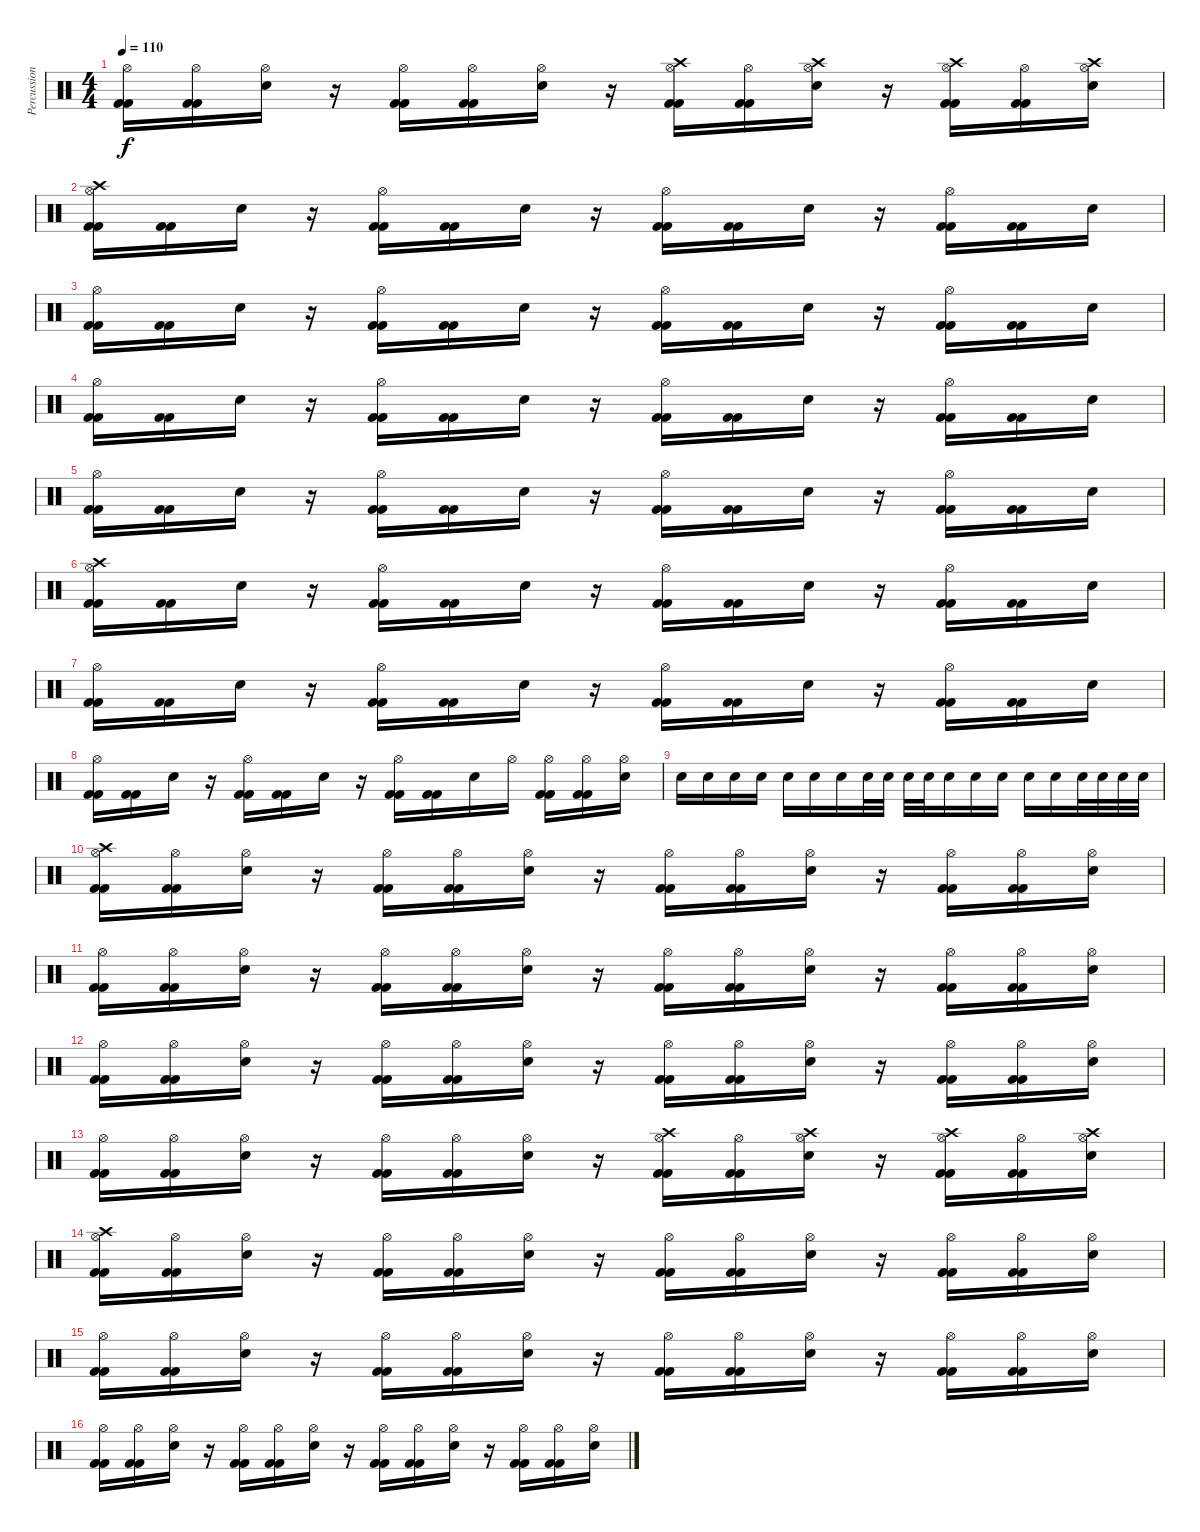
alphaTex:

\track ("Percussions" "Percussion") {instrument percussion}
\staff {score}
\articulation defaults
\ts (4 4)
\tempo 110
\clef neutral
\ks c
("Hi-Hat (open)" "Kick (hit) 2" "Kick (hit) 2").16{dy f} ("Hi-Hat (open)" "Kick (hit) 2" "Kick (hit) 2").16 ("Hi-Hat (open)" "Snare (hit) 2").16 r.16 ("Hi-Hat (open)" "Kick (hit) 2" "Kick (hit) 2").16 ("Hi-Hat (open)" "Kick (hit) 2" "Kick (hit) 2").16 ("Hi-Hat (open)" "Snare (hit) 2").16 r.16 ("Crash high (hit)" "Hi-Hat (open)" "Kick (hit) 2" "Kick (hit) 2").16 ("Hi-Hat (open)" "Kick (hit) 2" "Kick (hit) 2").16 ("Crash high (hit)" "Hi-Hat (open)" "Snare (hit) 2").16 r.16 ("Crash high (hit)" "Hi-Hat (open)" "Kick (hit) 2" "Kick (hit) 2").16 ("Hi-Hat (open)" "Kick (hit) 2" "Kick (hit) 2").16 ("Crash high (hit)" "Hi-Hat (open)" "Snare (hit) 2").16 |
("Crash high (hit)" "Hi-Hat (open)" "Kick (hit) 2" "Kick (hit) 2").16 ("Kick (hit) 2" "Kick (hit) 2").16 "Snare (hit) 2".16 r.16 ("Hi-Hat (open)" "Kick (hit) 2" "Kick (hit) 2").16 ("Kick (hit) 2" "Kick (hit) 2").16 "Snare (hit) 2".16 r.16 ("Hi-Hat (open)" "Kick (hit) 2" "Kick (hit) 2").16 ("Kick (hit) 2" "Kick (hit) 2").16 "Snare (hit) 2".16 r.16 ("Hi-Hat (open)" "Kick (hit) 2" "Kick (hit) 2").16 ("Kick (hit) 2" "Kick (hit) 2").16 "Snare (hit) 2".16 |
("Hi-Hat (open)" "Kick (hit) 2" "Kick (hit) 2").16 ("Kick (hit) 2" "Kick (hit) 2").16 "Snare (hit) 2".16 r.16 ("Hi-Hat (open)" "Kick (hit) 2" "Kick (hit) 2").16 ("Kick (hit) 2" "Kick (hit) 2").16 "Snare (hit) 2".16 r.16 ("Hi-Hat (open)" "Kick (hit) 2" "Kick (hit) 2").16 ("Kick (hit) 2" "Kick (hit) 2").16 "Snare (hit) 2".16 r.16 ("Hi-Hat (open)" "Kick (hit) 2" "Kick (hit) 2").16 ("Kick (hit) 2" "Kick (hit) 2").16 "Snare (hit) 2".16 |
("Hi-Hat (open)" "Kick (hit) 2" "Kick (hit) 2").16 ("Kick (hit) 2" "Kick (hit) 2").16 "Snare (hit) 2".16 r.16 ("Hi-Hat (open)" "Kick (hit) 2" "Kick (hit) 2").16 ("Kick (hit) 2" "Kick (hit) 2").16 "Snare (hit) 2".16 r.16 ("Hi-Hat (open)" "Kick (hit) 2" "Kick (hit) 2").16 ("Kick (hit) 2" "Kick (hit) 2").16 "Snare (hit) 2".16 r.16 ("Hi-Hat (open)" "Kick (hit) 2" "Kick (hit) 2").16 ("Kick (hit) 2" "Kick (hit) 2").16 "Snare (hit) 2".16 |
("Hi-Hat (open)" "Kick (hit) 2" "Kick (hit) 2").16 ("Kick (hit) 2" "Kick (hit) 2").16 "Snare (hit) 2".16 r.16 ("Hi-Hat (open)" "Kick (hit) 2" "Kick (hit) 2").16 ("Kick (hit) 2" "Kick (hit) 2").16 "Snare (hit) 2".16 r.16 ("Hi-Hat (open)" "Kick (hit) 2" "Kick (hit) 2").16 ("Kick (hit) 2" "Kick (hit) 2").16 "Snare (hit) 2".16 r.16 ("Hi-Hat (open)" "Kick (hit) 2" "Kick (hit) 2").16 ("Kick (hit) 2" "Kick (hit) 2").16 "Snare (hit) 2".16 |
("Crash high (hit)" "Hi-Hat (open)" "Kick (hit) 2" "Kick (hit) 2").16 ("Kick (hit) 2" "Kick (hit) 2").16 "Snare (hit) 2".16 r.16 ("Hi-Hat (open)" "Kick (hit) 2" "Kick (hit) 2").16 ("Kick (hit) 2" "Kick (hit) 2").16 "Snare (hit) 2".16 r.16 ("Hi-Hat (open)" "Kick (hit) 2" "Kick (hit) 2").16 ("Kick (hit) 2" "Kick (hit) 2").16 "Snare (hit) 2".16 r.16 ("Hi-Hat (open)" "Kick (hit) 2" "Kick (hit) 2").16 ("Kick (hit) 2" "Kick (hit) 2").16 "Snare (hit) 2".16 |
("Hi-Hat (open)" "Kick (hit) 2" "Kick (hit) 2").16 ("Kick (hit) 2" "Kick (hit) 2").16 "Snare (hit) 2".16 r.16 ("Hi-Hat (open)" "Kick (hit) 2" "Kick (hit) 2").16 ("Kick (hit) 2" "Kick (hit) 2").16 "Snare (hit) 2".16 r.16 ("Hi-Hat (open)" "Kick (hit) 2" "Kick (hit) 2").16 ("Kick (hit) 2" "Kick (hit) 2").16 "Snare (hit) 2".16 r.16 ("Hi-Hat (open)" "Kick (hit) 2" "Kick (hit) 2").16 ("Kick (hit) 2" "Kick (hit) 2").16 "Snare (hit) 2".16 |
("Hi-Hat (open)" "Kick (hit) 2" "Kick (hit) 2").16 ("Kick (hit) 2" "Kick (hit) 2").16 "Snare (hit) 2".16 r.16 ("Hi-Hat (open)" "Kick (hit) 2" "Kick (hit) 2").16 ("Kick (hit) 2" "Kick (hit) 2").16 "Snare (hit) 2".16 r.16 ("Hi-Hat (open)" "Kick (hit) 2" "Kick (hit) 2").16 ("Kick (hit) 2" "Kick (hit) 2").16 "Snare (hit) 2".16 "Hi-Hat (open)".16 ("Hi-Hat (open)" "Kick (hit) 2" "Kick (hit) 2").16 ("Hi-Hat (open)" "Kick (hit) 2" "Kick (hit) 2").16 ("Hi-Hat (open)" "Snare (hit) 2").16 |
"Snare (hit) 2".16{volume 16} "Snare (hit) 2".16 "Snare (hit) 2".16 "Snare (hit) 2".16 "Snare (hit) 2".16 "Snare (hit) 2".16 "Snare (hit) 2".16 "Snare (hit) 2".32 "Snare (hit) 2".32 "Snare (hit) 2".32 "Snare (hit) 2".32 "Snare (hit) 2".16 "Snare (hit) 2".16 "Snare (hit) 2".16 "Snare (hit) 2".16 "Snare (hit) 2".16 "Snare (hit) 2".32 "Snare (hit) 2".32 "Snare (hit) 2".32 "Snare (hit) 2".32 |
("Crash high (hit)" "Hi-Hat (open)" "Kick (hit) 2" "Kick (hit) 2").16 ("Hi-Hat (open)" "Kick (hit) 2" "Kick (hit) 2").16 ("Hi-Hat (open)" "Snare (hit) 2").16 r.16 ("Hi-Hat (open)" "Kick (hit) 2" "Kick (hit) 2").16 ("Hi-Hat (open)" "Kick (hit) 2" "Kick (hit) 2").16 ("Hi-Hat (open)" "Snare (hit) 2").16 r.16 ("Hi-Hat (open)" "Kick (hit) 2" "Kick (hit) 2").16 ("Hi-Hat (open)" "Kick (hit) 2" "Kick (hit) 2").16 ("Hi-Hat (open)" "Snare (hit) 2").16 r.16 ("Hi-Hat (open)" "Kick (hit) 2" "Kick (hit) 2").16 ("Hi-Hat (open)" "Kick (hit) 2" "Kick (hit) 2").16 ("Hi-Hat (open)" "Snare (hit) 2").16 |
("Hi-Hat (open)" "Kick (hit) 2" "Kick (hit) 2").16 ("Hi-Hat (open)" "Kick (hit) 2" "Kick (hit) 2").16 ("Hi-Hat (open)" "Snare (hit) 2").16 r.16 ("Hi-Hat (open)" "Kick (hit) 2" "Kick (hit) 2").16 ("Hi-Hat (open)" "Kick (hit) 2" "Kick (hit) 2").16 ("Hi-Hat (open)" "Snare (hit) 2").16 r.16 ("Hi-Hat (open)" "Kick (hit) 2" "Kick (hit) 2").16 ("Hi-Hat (open)" "Kick (hit) 2" "Kick (hit) 2").16 ("Hi-Hat (open)" "Snare (hit) 2").16 r.16 ("Hi-Hat (open)" "Kick (hit) 2" "Kick (hit) 2").16 ("Hi-Hat (open)" "Kick (hit) 2" "Kick (hit) 2").16 ("Hi-Hat (open)" "Snare (hit) 2").16 |
("Hi-Hat (open)" "Kick (hit) 2" "Kick (hit) 2").16 ("Hi-Hat (open)" "Kick (hit) 2" "Kick (hit) 2").16 ("Hi-Hat (open)" "Snare (hit) 2").16 r.16 ("Hi-Hat (open)" "Kick (hit) 2" "Kick (hit) 2").16 ("Hi-Hat (open)" "Kick (hit) 2" "Kick (hit) 2").16 ("Hi-Hat (open)" "Snare (hit) 2").16 r.16 ("Hi-Hat (open)" "Kick (hit) 2" "Kick (hit) 2").16 ("Hi-Hat (open)" "Kick (hit) 2" "Kick (hit) 2").16 ("Hi-Hat (open)" "Snare (hit) 2").16 r.16 ("Hi-Hat (open)" "Kick (hit) 2" "Kick (hit) 2").16 ("Hi-Hat (open)" "Kick (hit) 2" "Kick (hit) 2").16 ("Hi-Hat (open)" "Snare (hit) 2").16 |
("Hi-Hat (open)" "Kick (hit) 2" "Kick (hit) 2").16 ("Hi-Hat (open)" "Kick (hit) 2" "Kick (hit) 2").16 ("Hi-Hat (open)" "Snare (hit) 2").16 r.16 ("Hi-Hat (open)" "Kick (hit) 2" "Kick (hit) 2").16 ("Hi-Hat (open)" "Kick (hit) 2" "Kick (hit) 2").16 ("Hi-Hat (open)" "Snare (hit) 2").16 r.16 ("Crash high (hit)" "Hi-Hat (open)" "Kick (hit) 2" "Kick (hit) 2").16 ("Hi-Hat (open)" "Kick (hit) 2" "Kick (hit) 2").16 ("Crash high (hit)" "Hi-Hat (open)" "Snare (hit) 2").16 r.16 ("Crash high (hit)" "Hi-Hat (open)" "Kick (hit) 2" "Kick (hit) 2").16 ("Hi-Hat (open)" "Kick (hit) 2" "Kick (hit) 2").16 ("Crash high (hit)" "Hi-Hat (open)" "Snare (hit) 2").16 |
("Crash high (hit)" "Hi-Hat (open)" "Kick (hit) 2" "Kick (hit) 2").16 ("Hi-Hat (open)" "Kick (hit) 2" "Kick (hit) 2").16 ("Hi-Hat (open)" "Snare (hit) 2").16 r.16 ("Hi-Hat (open)" "Kick (hit) 2" "Kick (hit) 2").16 ("Hi-Hat (open)" "Kick (hit) 2" "Kick (hit) 2").16 ("Hi-Hat (open)" "Snare (hit) 2").16 r.16 ("Hi-Hat (open)" "Kick (hit) 2" "Kick (hit) 2").16 ("Hi-Hat (open)" "Kick (hit) 2" "Kick (hit) 2").16 ("Hi-Hat (open)" "Snare (hit) 2").16 r.16 ("Hi-Hat (open)" "Kick (hit) 2" "Kick (hit) 2").16 ("Hi-Hat (open)" "Kick (hit) 2" "Kick (hit) 2").16 ("Hi-Hat (open)" "Snare (hit) 2").16 |
("Hi-Hat (open)" "Kick (hit) 2" "Kick (hit) 2").16 ("Hi-Hat (open)" "Kick (hit) 2" "Kick (hit) 2").16 ("Hi-Hat (open)" "Snare (hit) 2").16 r.16 ("Hi-Hat (open)" "Kick (hit) 2" "Kick (hit) 2").16 ("Hi-Hat (open)" "Kick (hit) 2" "Kick (hit) 2").16 ("Hi-Hat (open)" "Snare (hit) 2").16 r.16 ("Hi-Hat (open)" "Kick (hit) 2" "Kick (hit) 2").16 ("Hi-Hat (open)" "Kick (hit) 2" "Kick (hit) 2").16 ("Hi-Hat (open)" "Snare (hit) 2").16 r.16 ("Hi-Hat (open)" "Kick (hit) 2" "Kick (hit) 2").16 ("Hi-Hat (open)" "Kick (hit) 2" "Kick (hit) 2").16 ("Hi-Hat (open)" "Snare (hit) 2").16 |
("Hi-Hat (open)" "Kick (hit) 2" "Kick (hit) 2").16 ("Hi-Hat (open)" "Kick (hit) 2" "Kick (hit) 2").16 ("Hi-Hat (open)" "Snare (hit) 2").16 r.16 ("Hi-Hat (open)" "Kick (hit) 2" "Kick (hit) 2").16 ("Hi-Hat (open)" "Kick (hit) 2" "Kick (hit) 2").16 ("Hi-Hat (open)" "Snare (hit) 2").16 r.16 ("Hi-Hat (open)" "Kick (hit) 2" "Kick (hit) 2").16 ("Hi-Hat (open)" "Kick (hit) 2" "Kick (hit) 2").16 ("Hi-Hat (open)" "Snare (hit) 2").16 r.16 ("Hi-Hat (open)" "Kick (hit) 2" "Kick (hit) 2").16 ("Hi-Hat (open)" "Kick (hit) 2" "Kick (hit) 2").16 ("Hi-Hat (open)" "Snare (hit) 2").16
